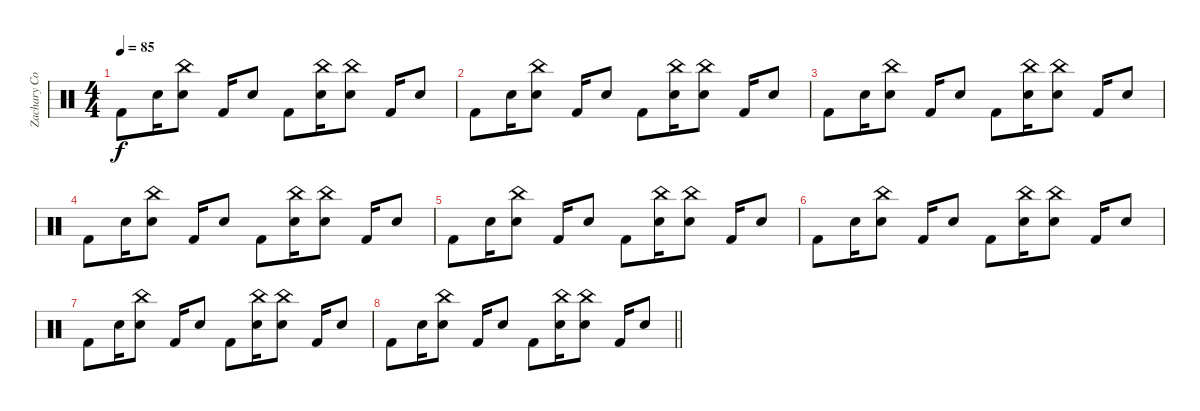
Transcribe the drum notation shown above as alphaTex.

\track ("Zachary Cole Smith" "Zachary Co") {instrument percussion}
\staff {score}
\articulation defaults
\ts (4 4)
\tempo 85
\clef neutral
\ks c "Kick (hit) 2".8{dy f} "Electric Snare (hit)".16
("China (hit)" "Electric Snare (hit)").8 "Kick (hit) 2".16 "Electric Snare (hit)".8 "Kick (hit) 2".8 ("China (hit)" "Electric Snare (hit)").16 ("China (hit)" "Electric Snare (hit)").8 "Kick (hit) 2".16 "Electric Snare (hit)".8 |
"Kick (hit) 2".8 "Electric Snare (hit)".16 ("China (hit)" "Electric Snare (hit)").8 "Kick (hit) 2".16 "Electric Snare (hit)".8 "Kick (hit) 2".8 ("China (hit)" "Electric Snare (hit)").16 ("China (hit)" "Electric Snare (hit)").8 "Kick (hit) 2".16 "Electric Snare (hit)".8 |
"Kick (hit) 2".8 "Electric Snare (hit)".16 ("China (hit)" "Electric Snare (hit)").8 "Kick (hit) 2".16 "Electric Snare (hit)".8 "Kick (hit) 2".8 ("China (hit)" "Electric Snare (hit)").16 ("China (hit)" "Electric Snare (hit)").8 "Kick (hit) 2".16 "Electric Snare (hit)".8 |
"Kick (hit) 2".8 "Electric Snare (hit)".16 ("China (hit)" "Electric Snare (hit)").8 "Kick (hit) 2".16 "Electric Snare (hit)".8 "Kick (hit) 2".8 ("China (hit)" "Electric Snare (hit)").16 ("China (hit)" "Electric Snare (hit)").8 "Kick (hit) 2".16 "Electric Snare (hit)".8 |
"Kick (hit) 2".8 "Electric Snare (hit)".16 ("China (hit)" "Electric Snare (hit)").8 "Kick (hit) 2".16 "Electric Snare (hit)".8 "Kick (hit) 2".8 ("China (hit)" "Electric Snare (hit)").16 ("China (hit)" "Electric Snare (hit)").8 "Kick (hit) 2".16 "Electric Snare (hit)".8 |
"Kick (hit) 2".8 "Electric Snare (hit)".16 ("China (hit)" "Electric Snare (hit)").8 "Kick (hit) 2".16 "Electric Snare (hit)".8 "Kick (hit) 2".8 ("China (hit)" "Electric Snare (hit)").16 ("China (hit)" "Electric Snare (hit)").8 "Kick (hit) 2".16 "Electric Snare (hit)".8 |
"Kick (hit) 2".8 "Electric Snare (hit)".16 ("China (hit)" "Electric Snare (hit)").8 "Kick (hit) 2".16 "Electric Snare (hit)".8 "Kick (hit) 2".8 ("China (hit)" "Electric Snare (hit)").16 ("China (hit)" "Electric Snare (hit)").8 "Kick (hit) 2".16 "Electric Snare (hit)".8 |
\barLineRight lightlight "Kick (hit) 2".8 "Electric Snare (hit)".16
("China (hit)" "Electric Snare (hit)").8 "Kick (hit) 2".16 "Electric Snare (hit)".8 "Kick (hit) 2".8 ("China (hit)" "Electric Snare (hit)").16 ("China (hit)" "Electric Snare (hit)").8 "Kick (hit) 2".16 "Electric Snare (hit)".8
